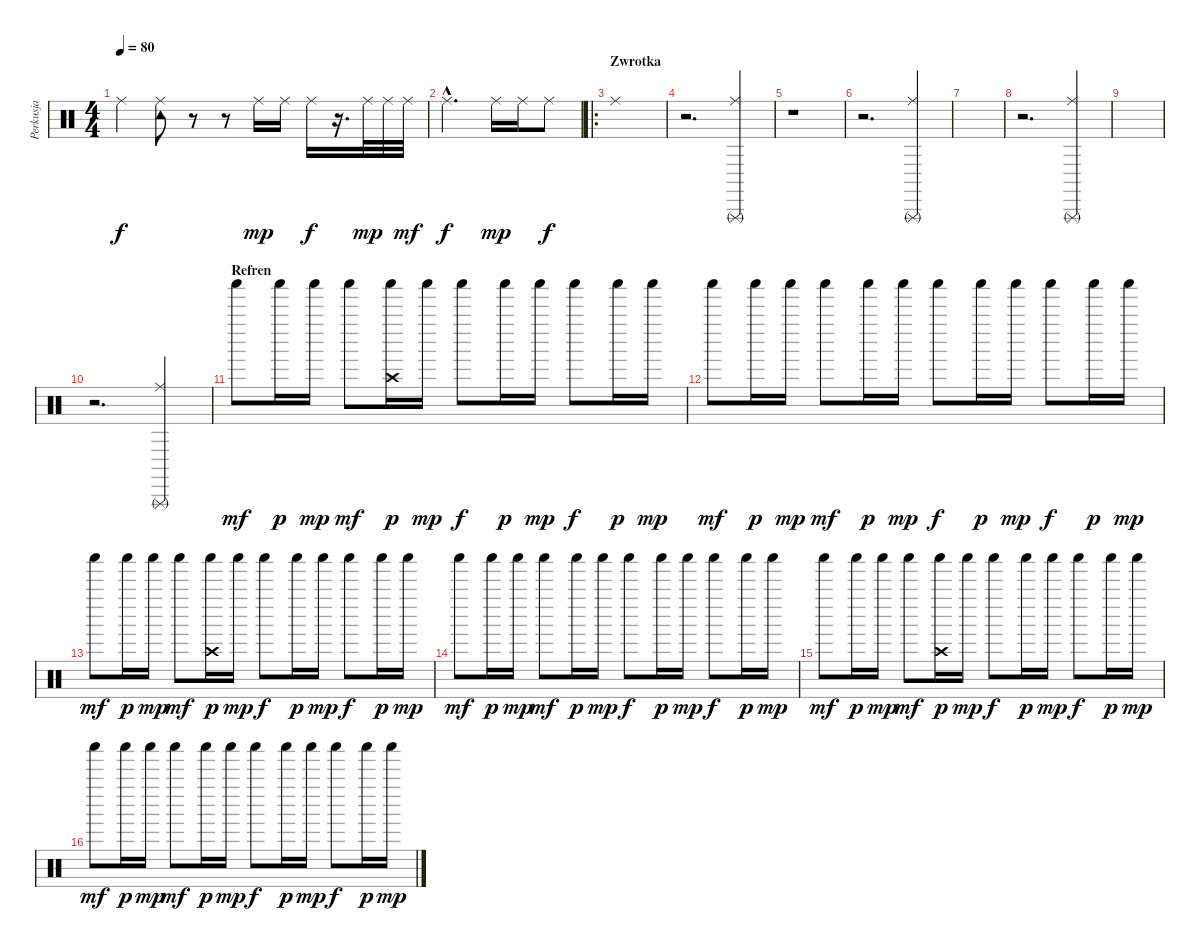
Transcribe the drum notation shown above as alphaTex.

\track ("Perkusja" "Perkusja") {instrument percussion}
\staff {score}
\articulation defaults
\ts (4 4)
\tempo 80
\clef neutral
\ks c "Ride (middle)".4{dy f}
("Tambourine (hit)" "Ride (middle)").8 r.8 r.8 "Ride (middle)".16{dy mp} "Ride (middle)".16 "Ride (middle)".16{dy f} r.16{d} "Ride (middle)".32{dy mp} "Ride (middle)".32 "Ride (middle)".32{dy mf} |
"Ride (middle)"{hac}.2{d dy f} "Ride (middle)".16{dy mp} "Ride (middle)".16 "Ride (middle)".8{dy f} |
\ro
\section ("" "Zwrotka")
"Ride (middle)".1 |
r.2{d} ("Triangle (rnute)" "Ride (middle)").4 |
r.1 |
r.2{d} ("Triangle (rnute)" "Ride (middle)").4 |
|
r.2{d} ("Triangle (rnute)" "Ride (middle)").4 |
|
r.2{d} ("Triangle (rnute)" "Ride (middle)").4 |
\section ("" "Refren")
"Shaker (hit)".8{dy mf} "Shaker (hit)".16{dy p} "Shaker (hit)".16{dy mp} "Shaker (hit)".8{dy mf} ("Crash high (hit)" "Shaker (hit)").16{dy p} "Shaker (hit)".16{dy mp} "Shaker (hit)".8{dy f} "Shaker (hit)".16{dy p} "Shaker (hit)".16{dy mp} "Shaker (hit)".8{dy f} "Shaker (hit)".16{dy p} "Shaker (hit)".16{dy mp} |
"Shaker (hit)".8{dy mf} "Shaker (hit)".16{dy p} "Shaker (hit)".16{dy mp} "Shaker (hit)".8{dy mf} "Shaker (hit)".16{dy p} "Shaker (hit)".16{dy mp} "Shaker (hit)".8{dy f} "Shaker (hit)".16{dy p} "Shaker (hit)".16{dy mp} "Shaker (hit)".8{dy f} "Shaker (hit)".16{dy p} "Shaker (hit)".16{dy mp} |
"Shaker (hit)".8{dy mf} "Shaker (hit)".16{dy p} "Shaker (hit)".16{dy mp} "Shaker (hit)".8{dy mf} ("Crash high (hit)" "Shaker (hit)").16{dy p} "Shaker (hit)".16{dy mp} "Shaker (hit)".8{dy f} "Shaker (hit)".16{dy p} "Shaker (hit)".16{dy mp} "Shaker (hit)".8{dy f} "Shaker (hit)".16{dy p} "Shaker (hit)".16{dy mp} |
"Shaker (hit)".8{dy mf} "Shaker (hit)".16{dy p} "Shaker (hit)".16{dy mp} "Shaker (hit)".8{dy mf} "Shaker (hit)".16{dy p} "Shaker (hit)".16{dy mp} "Shaker (hit)".8{dy f} "Shaker (hit)".16{dy p} "Shaker (hit)".16{dy mp} "Shaker (hit)".8{dy f} "Shaker (hit)".16{dy p} "Shaker (hit)".16{dy mp} |
"Shaker (hit)".8{dy mf} "Shaker (hit)".16{dy p} "Shaker (hit)".16{dy mp} "Shaker (hit)".8{dy mf} ("Crash high (hit)" "Shaker (hit)").16{dy p} "Shaker (hit)".16{dy mp} "Shaker (hit)".8{dy f} "Shaker (hit)".16{dy p} "Shaker (hit)".16{dy mp} "Shaker (hit)".8{dy f} "Shaker (hit)".16{dy p} "Shaker (hit)".16{dy mp} |
"Shaker (hit)".8{dy mf} "Shaker (hit)".16{dy p} "Shaker (hit)".16{dy mp} "Shaker (hit)".8{dy mf} "Shaker (hit)".16{dy p} "Shaker (hit)".16{dy mp} "Shaker (hit)".8{dy f} "Shaker (hit)".16{dy p} "Shaker (hit)".16{dy mp} "Shaker (hit)".8{dy f} "Shaker (hit)".16{dy p} "Shaker (hit)".16{dy mp}
